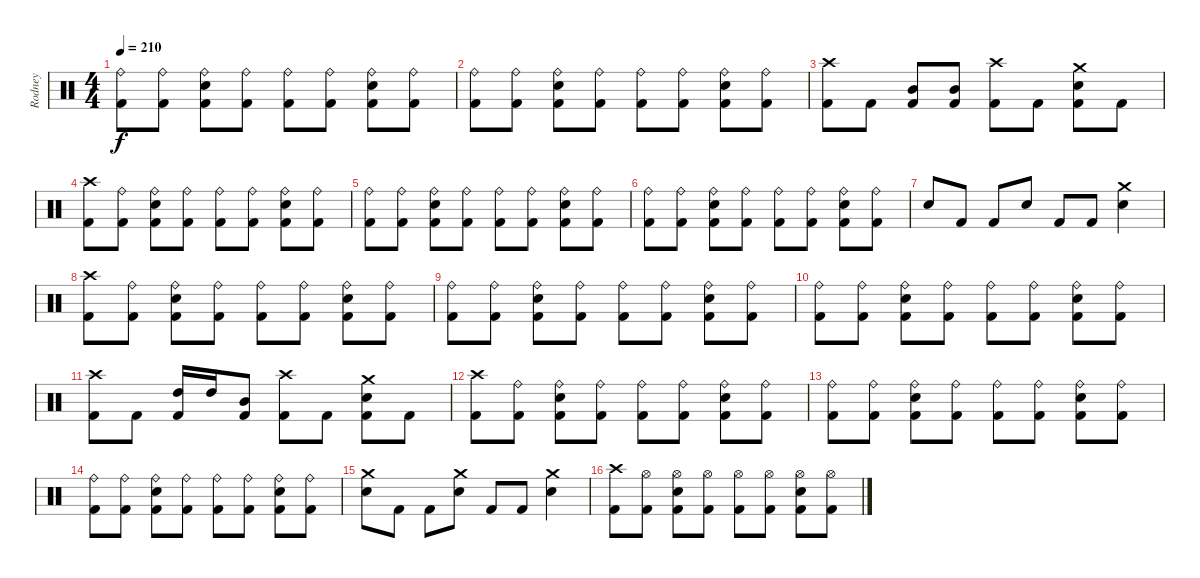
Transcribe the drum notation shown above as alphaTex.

\track ("Rodney" "Rodney") {instrument percussion}
\staff {score}
\articulation defaults
\ts (4 4)
\tempo 210
\clef neutral
\ks c
("Ride (bell)" "Kick (hit) 2").8{dy f} ("Ride (bell)" "Kick (hit) 2").8 ("Ride (bell)" "Snare (hit) 2" "Kick (hit) 2").8 ("Ride (bell)" "Kick (hit) 2").8 ("Ride (bell)" "Kick (hit) 2").8 ("Ride (bell)" "Kick (hit) 2").8 ("Ride (bell)" "Snare (hit) 2" "Kick (hit) 2").8 ("Ride (bell)" "Kick (hit) 2").8 |
("Ride (bell)" "Kick (hit) 2").8 ("Ride (bell)" "Kick (hit) 2").8 ("Ride (bell)" "Snare (hit) 2" "Kick (hit) 2").8 ("Ride (bell)" "Kick (hit) 2").8 ("Ride (bell)" "Kick (hit) 2").8 ("Ride (bell)" "Kick (hit) 2").8 ("Ride (bell)" "Snare (hit) 2" "Kick (hit) 2").8 ("Ride (bell)" "Kick (hit) 2").8 |
("Crash high (hit)" "Kick (hit) 2").8 "Kick (hit) 2".8 ("Mid Tom (hit)" "Kick (hit) 2").8 ("Mid Tom (hit)" "Kick (hit) 2").8 ("Crash high (hit)" "Kick (hit) 2").8 "Kick (hit) 2".8 ("Crash medium (hit)" "Snare (hit) 2" "Kick (hit) 2").8 "Kick (hit) 2".8 |
("Crash high (hit)" "Kick (hit) 2").8 ("Ride (bell)" "Kick (hit) 2").8 ("Ride (bell)" "Snare (hit) 2" "Kick (hit) 2").8 ("Ride (bell)" "Kick (hit) 2").8 ("Ride (bell)" "Kick (hit) 2").8 ("Ride (bell)" "Kick (hit) 2").8 ("Ride (bell)" "Snare (hit) 2" "Kick (hit) 2").8 ("Ride (bell)" "Kick (hit) 2").8 |
("Ride (bell)" "Kick (hit) 2").8 ("Ride (bell)" "Kick (hit) 2").8 ("Ride (bell)" "Snare (hit) 2" "Kick (hit) 2").8 ("Ride (bell)" "Kick (hit) 2").8 ("Ride (bell)" "Kick (hit) 2").8 ("Ride (bell)" "Kick (hit) 2").8 ("Ride (bell)" "Snare (hit) 2" "Kick (hit) 2").8 ("Ride (bell)" "Kick (hit) 2").8 |
("Ride (bell)" "Kick (hit) 2").8 ("Ride (bell)" "Kick (hit) 2").8 ("Ride (bell)" "Snare (hit) 2" "Kick (hit) 2").8 ("Ride (bell)" "Kick (hit) 2").8 ("Ride (bell)" "Kick (hit) 2").8 ("Ride (bell)" "Kick (hit) 2").8 ("Ride (bell)" "Snare (hit) 2" "Kick (hit) 2").8 ("Ride (bell)" "Kick (hit) 2").8 |
"Snare (hit) 2".8 "Kick (hit) 2".8 "Kick (hit) 2".8 "Snare (hit) 2".8 "Kick (hit) 2".8 "Kick (hit) 2".8 ("Crash medium (hit)" "Snare (hit) 2").4 |
("Crash high (hit)" "Kick (hit) 2").8 ("Ride (bell)" "Kick (hit) 2").8 ("Ride (bell)" "Snare (hit) 2" "Kick (hit) 2").8 ("Ride (bell)" "Kick (hit) 2").8 ("Ride (bell)" "Kick (hit) 2").8 ("Ride (bell)" "Kick (hit) 2").8 ("Ride (bell)" "Snare (hit) 2" "Kick (hit) 2").8 ("Ride (bell)" "Kick (hit) 2").8 |
("Ride (bell)" "Kick (hit) 2").8 ("Ride (bell)" "Kick (hit) 2").8 ("Ride (bell)" "Snare (hit) 2" "Kick (hit) 2").8 ("Ride (bell)" "Kick (hit) 2").8 ("Ride (bell)" "Kick (hit) 2").8 ("Ride (bell)" "Kick (hit) 2").8 ("Ride (bell)" "Snare (hit) 2" "Kick (hit) 2").8 ("Ride (bell)" "Kick (hit) 2").8 |
("Ride (bell)" "Kick (hit) 2").8 ("Ride (bell)" "Kick (hit) 2").8 ("Ride (bell)" "Snare (hit) 2" "Kick (hit) 2").8 ("Ride (bell)" "Kick (hit) 2").8 ("Ride (bell)" "Kick (hit) 2").8 ("Ride (bell)" "Kick (hit) 2").8 ("Ride (bell)" "Snare (hit) 2" "Kick (hit) 2").8 ("Ride (bell)" "Kick (hit) 2").8 |
("Crash high (hit)" "Kick (hit) 2").8 "Kick (hit) 2".8 ("High Tom (hit)" "Kick (hit) 2").16 "High Tom (hit)".16 ("Mid Tom (hit)" "Kick (hit) 2").8 ("Crash high (hit)" "Kick (hit) 2").8 "Kick (hit) 2".8 ("Crash medium (hit)" "Snare (hit) 2" "Kick (hit) 2").8 "Kick (hit) 2".8 |
("Crash high (hit)" "Kick (hit) 2").8 ("Ride (bell)" "Kick (hit) 2").8 ("Ride (bell)" "Snare (hit) 2" "Kick (hit) 2").8 ("Ride (bell)" "Kick (hit) 2").8 ("Ride (bell)" "Kick (hit) 2").8 ("Ride (bell)" "Kick (hit) 2").8 ("Ride (bell)" "Snare (hit) 2" "Kick (hit) 2").8 ("Ride (bell)" "Kick (hit) 2").8 |
("Ride (bell)" "Kick (hit) 2").8 ("Ride (bell)" "Kick (hit) 2").8 ("Ride (bell)" "Snare (hit) 2" "Kick (hit) 2").8 ("Ride (bell)" "Kick (hit) 2").8 ("Ride (bell)" "Kick (hit) 2").8 ("Ride (bell)" "Kick (hit) 2").8 ("Ride (bell)" "Snare (hit) 2" "Kick (hit) 2").8 ("Ride (bell)" "Kick (hit) 2").8 |
("Ride (bell)" "Kick (hit) 2").8 ("Ride (bell)" "Kick (hit) 2").8 ("Ride (bell)" "Snare (hit) 2" "Kick (hit) 2").8 ("Ride (bell)" "Kick (hit) 2").8 ("Ride (bell)" "Kick (hit) 2").8 ("Ride (bell)" "Kick (hit) 2").8 ("Ride (bell)" "Snare (hit) 2" "Kick (hit) 2").8 ("Ride (bell)" "Kick (hit) 2").8 |
("Crash medium (hit)" "Snare (hit) 2").8 "Kick (hit) 2".8 "Kick (hit) 2".8 ("Crash medium (hit)" "Snare (hit) 2").8 "Kick (hit) 2".8 "Kick (hit) 2".8 ("Crash medium (hit)" "Snare (hit) 2").4 |
("Crash high (hit)" "Kick (hit) 2").8 ("Hi-Hat (open)" "Kick (hit) 2").8 ("Hi-Hat (open)" "Snare (hit) 2" "Kick (hit) 2").8 ("Hi-Hat (open)" "Kick (hit) 2").8 ("Hi-Hat (open)" "Kick (hit) 2").8 ("Hi-Hat (open)" "Kick (hit) 2").8 ("Hi-Hat (open)" "Snare (hit) 2" "Kick (hit) 2").8 ("Hi-Hat (open)" "Kick (hit) 2").8
